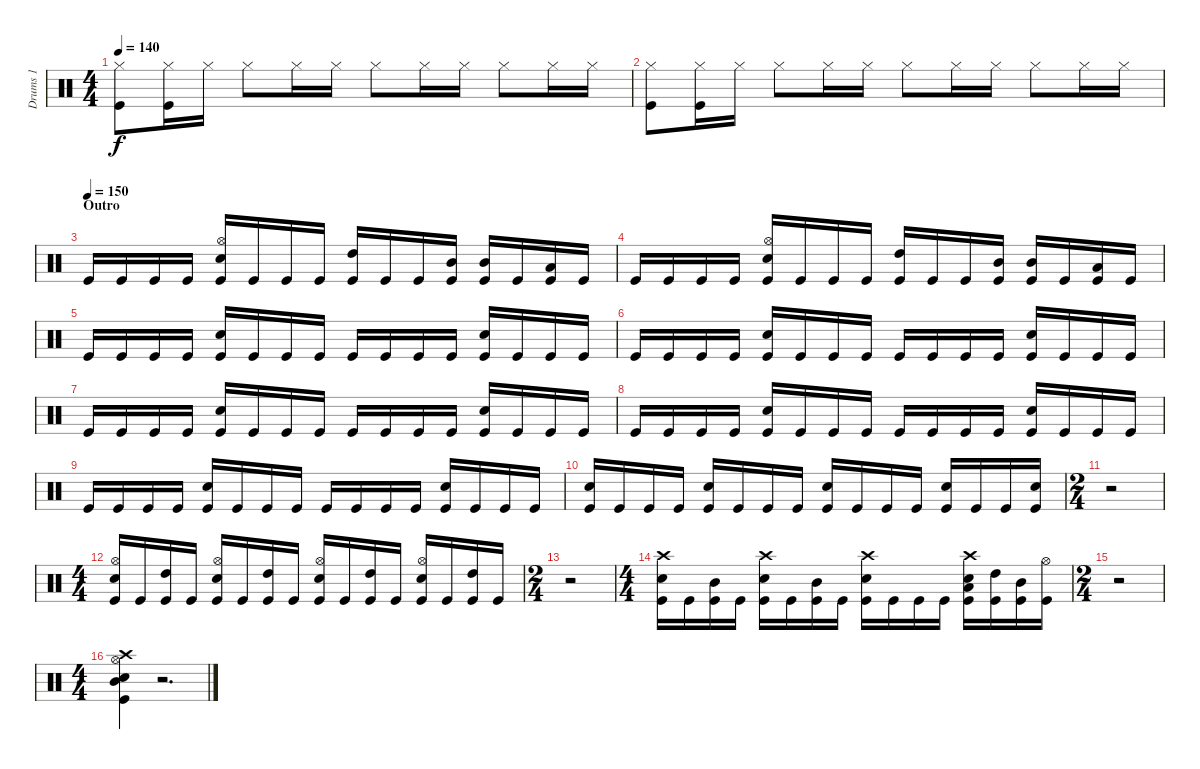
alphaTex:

\track ("Drums 1" "Drums 1") {instrument percussion}
\staff {score}
\articulation defaults
\ts (4 4)
\tempo 140
\clef neutral
\ks c
("Kick (hit)" "Hi-Hat (closed)").8{dy f} ("Kick (hit)" "Hi-Hat (closed)").16 "Hi-Hat (closed)".16 "Hi-Hat (closed)".8 "Hi-Hat (closed)".16 "Hi-Hat (closed)".16 "Hi-Hat (closed)".8 "Hi-Hat (closed)".16 "Hi-Hat (closed)".16 "Hi-Hat (closed)".8 "Hi-Hat (closed)".16 "Hi-Hat (closed)".16 |
("Kick (hit)" "Hi-Hat (closed)").8 ("Kick (hit)" "Hi-Hat (closed)").16 "Hi-Hat (closed)".16 "Hi-Hat (closed)".8 "Hi-Hat (closed)".16 "Hi-Hat (closed)".16 "Hi-Hat (closed)".8 "Hi-Hat (closed)".16 "Hi-Hat (closed)".16 "Hi-Hat (closed)".8 "Hi-Hat (closed)".16 "Hi-Hat (closed)".16 |
\section ("" "Outro")
\tempo (150)
"Kick (hit)".16 "Kick (hit)".16 "Kick (hit)".16 "Kick (hit)".16 ("Hi-Hat (open)" "Snare (hit) 2" "Kick (hit)").16 "Kick (hit)".16 "Kick (hit)".16 "Kick (hit)".16 ("High Tom (hit)" "Kick (hit)").16 "Kick (hit)".16 "Kick (hit)".16 ("Mid Tom (hit)" "Kick (hit)").16 ("Mid Tom (hit)" "Kick (hit)").16 "Kick (hit)".16 ("Low Tom (hit)" "Kick (hit)").16 "Kick (hit)".16 |
"Kick (hit)".16 "Kick (hit)".16 "Kick (hit)".16 "Kick (hit)".16 ("Hi-Hat (open)" "Snare (hit) 2" "Kick (hit)").16 "Kick (hit)".16 "Kick (hit)".16 "Kick (hit)".16 ("High Tom (hit)" "Kick (hit)").16 "Kick (hit)".16 "Kick (hit)".16 ("Mid Tom (hit)" "Kick (hit)").16 ("Mid Tom (hit)" "Kick (hit)").16 "Kick (hit)".16 ("Low Tom (hit)" "Kick (hit)").16 "Kick (hit)".16 |
"Kick (hit)".16 "Kick (hit)".16 "Kick (hit)".16 "Kick (hit)".16 ("Snare (hit) 2" "Kick (hit)").16 "Kick (hit)".16 "Kick (hit)".16 "Kick (hit)".16 "Kick (hit)".16 "Kick (hit)".16 "Kick (hit)".16 "Kick (hit)".16 ("Snare (hit) 2" "Kick (hit)").16 "Kick (hit)".16 "Kick (hit)".16 "Kick (hit)".16 |
"Kick (hit)".16 "Kick (hit)".16 "Kick (hit)".16 "Kick (hit)".16 ("Snare (hit) 2" "Kick (hit)").16 "Kick (hit)".16 "Kick (hit)".16 "Kick (hit)".16 "Kick (hit)".16 "Kick (hit)".16 "Kick (hit)".16 "Kick (hit)".16 ("Snare (hit) 2" "Kick (hit)").16 "Kick (hit)".16 "Kick (hit)".16 "Kick (hit)".16 |
"Kick (hit)".16 "Kick (hit)".16 "Kick (hit)".16 "Kick (hit)".16 ("Snare (hit) 2" "Kick (hit)").16 "Kick (hit)".16 "Kick (hit)".16 "Kick (hit)".16 "Kick (hit)".16 "Kick (hit)".16 "Kick (hit)".16 "Kick (hit)".16 ("Snare (hit) 2" "Kick (hit)").16 "Kick (hit)".16 "Kick (hit)".16 "Kick (hit)".16 |
"Kick (hit)".16 "Kick (hit)".16 "Kick (hit)".16 "Kick (hit)".16 ("Snare (hit) 2" "Kick (hit)").16 "Kick (hit)".16 "Kick (hit)".16 "Kick (hit)".16 "Kick (hit)".16 "Kick (hit)".16 "Kick (hit)".16 "Kick (hit)".16 ("Snare (hit) 2" "Kick (hit)").16 "Kick (hit)".16 "Kick (hit)".16 "Kick (hit)".16 |
"Kick (hit)".16 "Kick (hit)".16 "Kick (hit)".16 "Kick (hit)".16 ("Snare (hit) 2" "Kick (hit)").16 "Kick (hit)".16 "Kick (hit)".16 "Kick (hit)".16 "Kick (hit)".16 "Kick (hit)".16 "Kick (hit)".16 "Kick (hit)".16 ("Snare (hit) 2" "Kick (hit)").16 "Kick (hit)".16 "Kick (hit)".16 "Kick (hit)".16 |
("Snare (hit) 2" "Kick (hit)").16 "Kick (hit)".16 "Kick (hit)".16 "Kick (hit)".16 ("Snare (hit) 2" "Kick (hit)").16 "Kick (hit)".16 "Kick (hit)".16 "Kick (hit)".16 ("Snare (hit) 2" "Kick (hit)").16 "Kick (hit)".16 "Kick (hit)".16 "Kick (hit)".16 ("Snare (hit) 2" "Kick (hit)").16 "Kick (hit)".16 "Kick (hit)".16 ("Snare (hit) 2" "Kick (hit)").16 |
\ts (2 4)
r.2 |
\ts (4 4)
("Hi-Hat (open)" "Snare (hit) 2" "Kick (hit)").16 "Kick (hit)".16 ("High Tom (hit)" "Kick (hit)").16 "Kick (hit)".16 ("Hi-Hat (open)" "Snare (hit) 2" "Kick (hit)").16 "Kick (hit)".16 ("High Tom (hit)" "Kick (hit)").16 "Kick (hit)".16 ("Hi-Hat (open)" "Snare (hit) 2" "Kick (hit)").16 "Kick (hit)".16 ("High Tom (hit)" "Kick (hit)").16 "Kick (hit)".16 ("Hi-Hat (open)" "Snare (hit) 2" "Kick (hit)").16 "Kick (hit)".16 ("High Tom (hit)" "Kick (hit)").16 "Kick (hit)".16 |
\ts (2 4)
r.2 |
\ts (4 4)
("Crash high (hit)" "Snare (hit) 2" "Kick (hit)").16 "Kick (hit)".16 ("Mid Tom (hit)" "Kick (hit)").16 "Kick (hit)".16 ("Crash high (hit)" "Snare (hit) 2" "Kick (hit)").16 "Kick (hit)".16 ("Mid Tom (hit)" "Kick (hit)").16 "Kick (hit)".16 ("Crash high (hit)" "Snare (hit) 2" "Kick (hit)").16 "Kick (hit)".16 "Kick (hit)".16 "Kick (hit)".16 ("Low Floor Tom (hit)" "Crash high (hit)" "Snare (hit) 2" "Kick (hit)").16 ("High Tom (hit)" "Kick (hit)").16 ("Mid Tom (hit)" "Kick (hit)").16 ("Hi-Hat (open)" "Kick (hit)").16 |
\ts (2 4)
r.2 |
\ts (4 4)
("Hi-Hat (open)" "Mid Tom (hit)" "Crash high (hit)" "Snare (hit) 2" "Kick (hit)").4 r.2{d}
